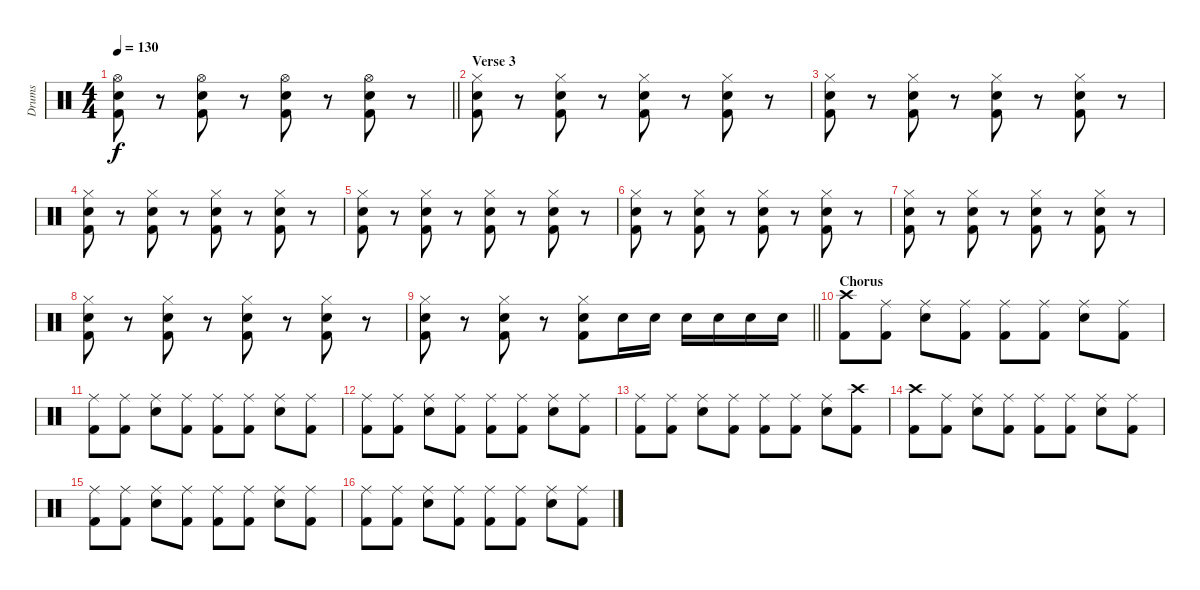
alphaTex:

\track ("Drums" "Drums") {instrument percussion}
\staff {score}
\articulation defaults
\ts (4 4)
\tempo 130
\clef neutral
\barLineRight lightlight
\ks c
("Hi-Hat (open)" "Snare (hit) 2" "Kick (hit) 2").8{dy f} r.8 ("Hi-Hat (open)" "Snare (hit) 2" "Kick (hit) 2").8 r.8 ("Hi-Hat (open)" "Snare (hit) 2" "Kick (hit) 2").8 r.8 ("Hi-Hat (open)" "Snare (hit) 2" "Kick (hit) 2").8 r.8 |
\section ("" "Verse 3")
("Hi-Hat (closed)" "Snare (hit) 2" "Kick (hit) 2").8 r.8 ("Hi-Hat (closed)" "Snare (hit) 2" "Kick (hit) 2").8 r.8 ("Hi-Hat (closed)" "Snare (hit) 2" "Kick (hit) 2").8 r.8 ("Hi-Hat (closed)" "Snare (hit) 2" "Kick (hit) 2").8 r.8 |
("Hi-Hat (closed)" "Snare (hit) 2" "Kick (hit) 2").8 r.8 ("Hi-Hat (closed)" "Snare (hit) 2" "Kick (hit) 2").8 r.8 ("Hi-Hat (closed)" "Snare (hit) 2" "Kick (hit) 2").8 r.8 ("Hi-Hat (closed)" "Snare (hit) 2" "Kick (hit) 2").8 r.8 |
("Hi-Hat (closed)" "Snare (hit) 2" "Kick (hit) 2").8 r.8 ("Hi-Hat (closed)" "Snare (hit) 2" "Kick (hit) 2").8 r.8 ("Hi-Hat (closed)" "Snare (hit) 2" "Kick (hit) 2").8 r.8 ("Hi-Hat (closed)" "Snare (hit) 2" "Kick (hit) 2").8 r.8 |
("Hi-Hat (closed)" "Snare (hit) 2" "Kick (hit) 2").8 r.8 ("Hi-Hat (closed)" "Snare (hit) 2" "Kick (hit) 2").8 r.8 ("Hi-Hat (closed)" "Snare (hit) 2" "Kick (hit) 2").8 r.8 ("Hi-Hat (closed)" "Snare (hit) 2" "Kick (hit) 2").8 r.8 |
("Hi-Hat (closed)" "Snare (hit) 2" "Kick (hit) 2").8 r.8 ("Hi-Hat (closed)" "Snare (hit) 2" "Kick (hit) 2").8 r.8 ("Hi-Hat (closed)" "Snare (hit) 2" "Kick (hit) 2").8 r.8 ("Hi-Hat (closed)" "Snare (hit) 2" "Kick (hit) 2").8 r.8 |
("Hi-Hat (closed)" "Snare (hit) 2" "Kick (hit) 2").8 r.8 ("Hi-Hat (closed)" "Snare (hit) 2" "Kick (hit) 2").8 r.8 ("Hi-Hat (closed)" "Snare (hit) 2" "Kick (hit) 2").8 r.8 ("Hi-Hat (closed)" "Snare (hit) 2" "Kick (hit) 2").8 r.8 |
("Hi-Hat (closed)" "Snare (hit) 2" "Kick (hit) 2").8 r.8 ("Hi-Hat (closed)" "Snare (hit) 2" "Kick (hit) 2").8 r.8 ("Hi-Hat (closed)" "Snare (hit) 2" "Kick (hit) 2").8 r.8 ("Hi-Hat (closed)" "Snare (hit) 2" "Kick (hit) 2").8 r.8 |
\barLineRight lightlight
("Hi-Hat (closed)" "Snare (hit) 2" "Kick (hit) 2").8 r.8 ("Hi-Hat (closed)" "Snare (hit) 2" "Kick (hit) 2").8 r.8 ("Hi-Hat (closed)" "Snare (hit) 2" "Kick (hit) 2").8 "Snare (hit) 2".16 "Snare (hit) 2".16 "Snare (hit) 2".16 "Snare (hit) 2".16 "Snare (hit) 2".16 "Snare (hit) 2".16 |
\section ("" "Chorus")
("Crash high (hit)" "Kick (hit) 2").8 ("Ride (middle)" "Kick (hit) 2").8 ("Ride (middle)" "Snare (hit) 2").8 ("Ride (middle)" "Kick (hit) 2").8 ("Ride (middle)" "Kick (hit) 2").8 ("Ride (middle)" "Kick (hit) 2").8 ("Ride (middle)" "Snare (hit) 2").8 ("Ride (middle)" "Kick (hit) 2").8 |
("Ride (middle)" "Kick (hit) 2").8 ("Ride (middle)" "Kick (hit) 2").8 ("Ride (middle)" "Snare (hit) 2").8 ("Ride (middle)" "Kick (hit) 2").8 ("Ride (middle)" "Kick (hit) 2").8 ("Ride (middle)" "Kick (hit) 2").8 ("Ride (middle)" "Snare (hit) 2").8 ("Ride (middle)" "Kick (hit) 2").8 |
("Ride (middle)" "Kick (hit) 2").8 ("Ride (middle)" "Kick (hit) 2").8 ("Ride (middle)" "Snare (hit) 2").8 ("Ride (middle)" "Kick (hit) 2").8 ("Ride (middle)" "Kick (hit) 2").8 ("Ride (middle)" "Kick (hit) 2").8 ("Ride (middle)" "Snare (hit) 2").8 ("Ride (middle)" "Kick (hit) 2").8 |
("Ride (middle)" "Kick (hit) 2").8 ("Ride (middle)" "Kick (hit) 2").8 ("Ride (middle)" "Snare (hit) 2").8 ("Ride (middle)" "Kick (hit) 2").8 ("Ride (middle)" "Kick (hit) 2").8 ("Ride (middle)" "Kick (hit) 2").8 ("Ride (middle)" "Snare (hit) 2").8 ("Crash high (hit)" "Kick (hit) 2").8 |
("Crash high (hit)" "Kick (hit) 2").8 ("Ride (middle)" "Kick (hit) 2").8 ("Ride (middle)" "Snare (hit) 2").8 ("Ride (middle)" "Kick (hit) 2").8 ("Ride (middle)" "Kick (hit) 2").8 ("Ride (middle)" "Kick (hit) 2").8 ("Ride (middle)" "Snare (hit) 2").8 ("Ride (middle)" "Kick (hit) 2").8 |
("Ride (middle)" "Kick (hit) 2").8 ("Ride (middle)" "Kick (hit) 2").8 ("Ride (middle)" "Snare (hit) 2").8 ("Ride (middle)" "Kick (hit) 2").8 ("Ride (middle)" "Kick (hit) 2").8 ("Ride (middle)" "Kick (hit) 2").8 ("Ride (middle)" "Snare (hit) 2").8 ("Ride (middle)" "Kick (hit) 2").8 |
("Ride (middle)" "Kick (hit) 2").8 ("Ride (middle)" "Kick (hit) 2").8 ("Ride (middle)" "Snare (hit) 2").8 ("Ride (middle)" "Kick (hit) 2").8 ("Ride (middle)" "Kick (hit) 2").8 ("Ride (middle)" "Kick (hit) 2").8 ("Ride (middle)" "Snare (hit) 2").8 ("Ride (middle)" "Kick (hit) 2").8
